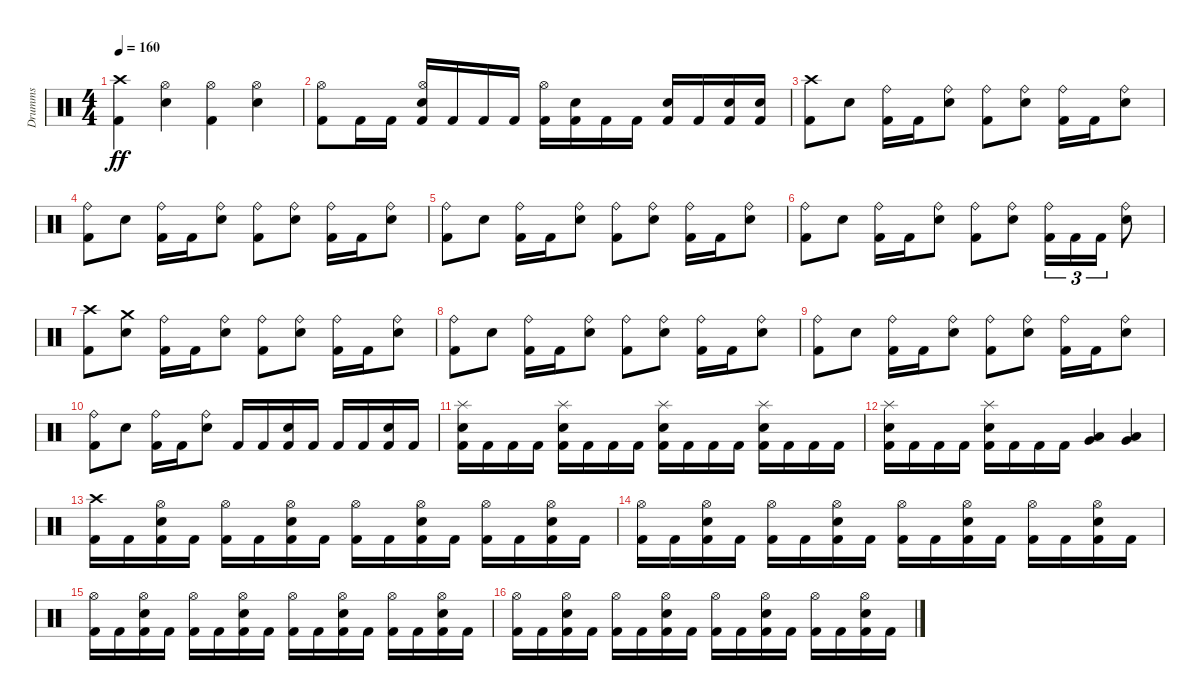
\track ("Drumms" "Drumms") {instrument percussion}
\staff {score}
\articulation defaults
\ts (4 4)
\tempo 160
\clef neutral
\ks c
("Crash high (hit)" "Kick (hit) 2").4{dy ff} ("Hi-Hat (open)" "Electric Snare (hit)").4 ("Hi-Hat (open)" "Kick (hit) 2").4 ("Hi-Hat (open)" "Electric Snare (hit)").4 |
("Hi-Hat (open)" "Kick (hit) 2").8 "Kick (hit) 2".16 "Kick (hit) 2".16 ("Hi-Hat (open)" "Electric Snare (hit)" "Kick (hit) 2").16 "Kick (hit) 2".16 "Kick (hit) 2".16 "Kick (hit) 2".16 ("Hi-Hat (open)" "Kick (hit) 2").16 ("Electric Snare (hit)" "Kick (hit) 2").16 "Kick (hit) 2".16 "Kick (hit) 2".16 ("Electric Snare (hit)" "Kick (hit) 2").16 "Kick (hit) 2".16 ("Electric Snare (hit)" "Kick (hit) 2").16 ("Electric Snare (hit)" "Kick (hit) 2").16 |
("Crash high (hit)" "Kick (hit) 2").8 "Electric Snare (hit)".8 ("Ride (bell)" "Kick (hit) 2").16 "Kick (hit) 2".16 ("Ride (bell)" "Electric Snare (hit)").8 ("Ride (bell)" "Kick (hit) 2").8 ("Ride (bell)" "Electric Snare (hit)").8 ("Ride (bell)" "Kick (hit) 2").16 "Kick (hit) 2".16 ("Ride (bell)" "Electric Snare (hit)").8 |
("Ride (bell)" "Kick (hit) 2").8 "Electric Snare (hit)".8 ("Ride (bell)" "Kick (hit) 2").16 "Kick (hit) 2".16 ("Ride (bell)" "Electric Snare (hit)").8 ("Ride (bell)" "Kick (hit) 2").8 ("Ride (bell)" "Electric Snare (hit)").8 ("Ride (bell)" "Kick (hit) 2").16 "Kick (hit) 2".16 ("Ride (bell)" "Electric Snare (hit)").8 |
("Ride (bell)" "Kick (hit) 2").8 "Electric Snare (hit)".8 ("Ride (bell)" "Kick (hit) 2").16 "Kick (hit) 2".16 ("Ride (bell)" "Electric Snare (hit)").8 ("Ride (bell)" "Kick (hit) 2").8 ("Ride (bell)" "Electric Snare (hit)").8 ("Ride (bell)" "Kick (hit) 2").16 "Kick (hit) 2".16 ("Ride (bell)" "Electric Snare (hit)").8 |
("Ride (bell)" "Kick (hit) 2").8 "Electric Snare (hit)".8 ("Ride (bell)" "Kick (hit) 2").16 "Kick (hit) 2".16 ("Ride (bell)" "Electric Snare (hit)").8 ("Ride (bell)" "Kick (hit) 2").8 ("Ride (bell)" "Electric Snare (hit)").8 ("Ride (bell)" "Kick (hit) 2").16{tu (3 2)} "Kick (hit) 2".16{tu (3 2)} "Kick (hit) 2".16{tu (3 2)} ("Ride (bell)" "Electric Snare (hit)").8 |
("Crash high (hit)" "Kick (hit) 2").8 ("Crash medium (hit)" "Electric Snare (hit)").8 ("Ride (bell)" "Kick (hit) 2").16 "Kick (hit) 2".16 ("Ride (bell)" "Electric Snare (hit)").8 ("Ride (bell)" "Kick (hit) 2").8 ("Ride (bell)" "Electric Snare (hit)").8 ("Ride (bell)" "Kick (hit) 2").16 "Kick (hit) 2".16 ("Ride (bell)" "Electric Snare (hit)").8 |
("Ride (bell)" "Kick (hit) 2").8 "Electric Snare (hit)".8 ("Ride (bell)" "Kick (hit) 2").16 "Kick (hit) 2".16 ("Ride (bell)" "Electric Snare (hit)").8 ("Ride (bell)" "Kick (hit) 2").8 ("Ride (bell)" "Electric Snare (hit)").8 ("Ride (bell)" "Kick (hit) 2").16 "Kick (hit) 2".16 ("Ride (bell)" "Electric Snare (hit)").8 |
("Ride (bell)" "Kick (hit) 2").8 "Electric Snare (hit)".8 ("Ride (bell)" "Kick (hit) 2").16 "Kick (hit) 2".16 ("Ride (bell)" "Electric Snare (hit)").8 ("Ride (bell)" "Kick (hit) 2").8 ("Ride (bell)" "Electric Snare (hit)").8 ("Ride (bell)" "Kick (hit) 2").16 "Kick (hit) 2".16 ("Ride (bell)" "Electric Snare (hit)").8 |
("Ride (bell)" "Kick (hit) 2").8 "Electric Snare (hit)".8 ("Ride (bell)" "Kick (hit) 2").16 "Kick (hit) 2".16 ("Ride (bell)" "Electric Snare (hit)").8 "Kick (hit) 2".16 "Kick (hit) 2".16 ("Electric Snare (hit)" "Kick (hit) 2").16 "Kick (hit) 2".16 "Kick (hit) 2".16 "Kick (hit) 2".16 ("Electric Snare (hit)" "Kick (hit) 2").16 "Kick (hit) 2".16 |
("Splash (hit)" "Electric Snare (hit)" "Kick (hit) 2").16 "Kick (hit) 2".16 "Kick (hit) 2".16 "Kick (hit) 2".16 ("Splash (hit)" "Electric Snare (hit)" "Kick (hit) 2").16 "Kick (hit) 2".16 "Kick (hit) 2".16 "Kick (hit) 2".16 ("Splash (hit)" "Electric Snare (hit)" "Kick (hit) 2").16 "Kick (hit) 2".16 "Kick (hit) 2".16 "Kick (hit) 2".16 ("Splash (hit)" "Electric Snare (hit)" "Kick (hit) 2").16 "Kick (hit) 2".16 "Kick (hit) 2".16 "Kick (hit) 2".16 |
("Splash (hit)" "Electric Snare (hit)" "Kick (hit) 2").16 "Kick (hit) 2".16 "Kick (hit) 2".16 "Kick (hit) 2".16 ("Splash (hit)" "Electric Snare (hit)" "Kick (hit) 2").16 "Kick (hit) 2".16 "Kick (hit) 2".16 "Kick (hit) 2".16 ("Very Low Tom (hit)" "Low Tom (hit)").4 ("Very Low Tom (hit)" "Low Tom (hit)").4 |
("Crash high (hit)" "Kick (hit) 2").16 "Kick (hit) 2".16 ("Hi-Hat (open)" "Electric Snare (hit)" "Kick (hit) 2").16 "Kick (hit) 2".16 ("Hi-Hat (open)" "Kick (hit) 2").16 "Kick (hit) 2".16 ("Hi-Hat (open)" "Electric Snare (hit)" "Kick (hit) 2").16 "Kick (hit) 2".16 ("Hi-Hat (open)" "Kick (hit) 2").16 "Kick (hit) 2".16 ("Hi-Hat (open)" "Electric Snare (hit)" "Kick (hit) 2").16 "Kick (hit) 2".16 ("Hi-Hat (open)" "Kick (hit) 2").16 "Kick (hit) 2".16 ("Hi-Hat (open)" "Electric Snare (hit)" "Kick (hit) 2").16 "Kick (hit) 2".16 |
("Hi-Hat (open)" "Kick (hit) 2").16 "Kick (hit) 2".16 ("Hi-Hat (open)" "Electric Snare (hit)" "Kick (hit) 2").16 "Kick (hit) 2".16 ("Hi-Hat (open)" "Kick (hit) 2").16 "Kick (hit) 2".16 ("Hi-Hat (open)" "Electric Snare (hit)" "Kick (hit) 2").16 "Kick (hit) 2".16 ("Hi-Hat (open)" "Kick (hit) 2").16 "Kick (hit) 2".16 ("Hi-Hat (open)" "Electric Snare (hit)" "Kick (hit) 2").16 "Kick (hit) 2".16 ("Hi-Hat (open)" "Kick (hit) 2").16 "Kick (hit) 2".16 ("Hi-Hat (open)" "Electric Snare (hit)" "Kick (hit) 2").16 "Kick (hit) 2".16 |
("Hi-Hat (open)" "Kick (hit) 2").16 "Kick (hit) 2".16 ("Hi-Hat (open)" "Electric Snare (hit)" "Kick (hit) 2").16 "Kick (hit) 2".16 ("Hi-Hat (open)" "Kick (hit) 2").16 "Kick (hit) 2".16 ("Hi-Hat (open)" "Electric Snare (hit)" "Kick (hit) 2").16 "Kick (hit) 2".16 ("Hi-Hat (open)" "Kick (hit) 2").16 "Kick (hit) 2".16 ("Hi-Hat (open)" "Electric Snare (hit)" "Kick (hit) 2").16 "Kick (hit) 2".16 ("Hi-Hat (open)" "Kick (hit) 2").16 "Kick (hit) 2".16 ("Hi-Hat (open)" "Electric Snare (hit)" "Kick (hit) 2").16 "Kick (hit) 2".16 |
("Hi-Hat (open)" "Kick (hit) 2").16 "Kick (hit) 2".16 ("Hi-Hat (open)" "Electric Snare (hit)" "Kick (hit) 2").16 "Kick (hit) 2".16 ("Hi-Hat (open)" "Kick (hit) 2").16 "Kick (hit) 2".16 ("Hi-Hat (open)" "Electric Snare (hit)" "Kick (hit) 2").16 "Kick (hit) 2".16 ("Hi-Hat (open)" "Kick (hit) 2").16 "Kick (hit) 2".16 ("Hi-Hat (open)" "Electric Snare (hit)" "Kick (hit) 2").16 "Kick (hit) 2".16 ("Hi-Hat (open)" "Kick (hit) 2").16 "Kick (hit) 2".16 ("Hi-Hat (open)" "Electric Snare (hit)" "Kick (hit) 2").16 "Kick (hit) 2".16
